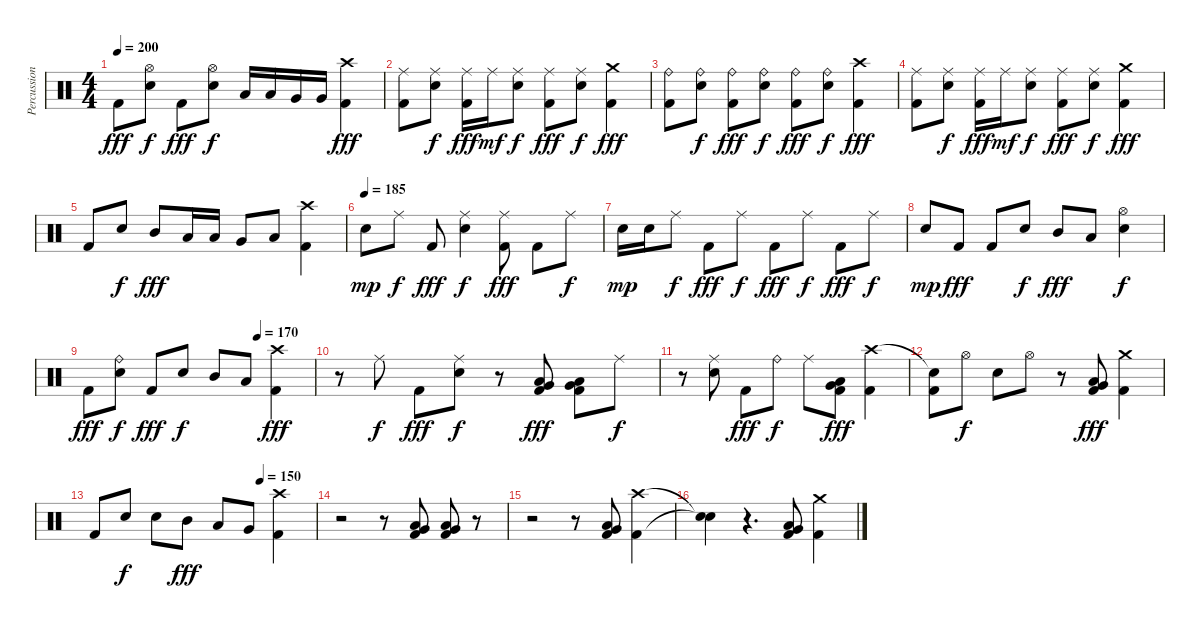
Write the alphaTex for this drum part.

\track ("Percussion" "Percussion") {instrument percussion}
\staff {score}
\articulation defaults
\ts (4 4)
\tempo 200
\clef neutral
\ks c "Kick (hit) 2".8{dy fff}
("Hi-Hat (open)" "Snare (hit) 2").8{dy f} "Kick (hit) 2".8{dy fff} ("Hi-Hat (open)" "Snare (hit) 2").8{dy f} "Low Tom (hit)".16 "Low Tom (hit)".16 "Very Low Tom (hit)".16 "Very Low Tom (hit)".16 ("Crash high (hit)" "Kick (hit) 2").4{dy fff} |
("Ride (middle)" "Kick (hit) 2").8 ("Ride (middle)" "Snare (hit) 2").8{dy f} ("Ride (middle)" "Kick (hit) 2").16{dy fff} "Ride (middle)".16{dy mf} ("Ride (middle)" "Snare (hit) 2").8{dy f} ("Ride (middle)" "Kick (hit) 2").8{dy fff} ("Ride (middle)" "Snare (hit) 2").8{dy f} ("Crash medium (hit)" "Kick (hit) 2").4{dy fff} |
("Ride (bell)" "Kick (hit) 2").8 ("Ride (bell)" "Snare (hit) 2").8{dy f} ("Ride (bell)" "Kick (hit) 2").8{dy fff} ("Ride (bell)" "Snare (hit) 2").8{dy f} ("Ride (bell)" "Kick (hit) 2").8{dy fff} ("Ride (bell)" "Snare (hit) 2").8{dy f} ("Crash high (hit)" "Kick (hit) 2").4{dy fff} |
("Ride (middle)" "Kick (hit) 2").8 ("Ride (middle)" "Snare (hit) 2").8{dy f} ("Ride (middle)" "Kick (hit) 2").16{dy fff} "Ride (middle)".16{dy mf} ("Ride (middle)" "Snare (hit) 2").8{dy f} ("Ride (middle)" "Kick (hit) 2").8{dy fff} ("Ride (middle)" "Snare (hit) 2").8{dy f} ("Crash medium (hit)" "Kick (hit) 2").4{dy fff} |
"Kick (hit) 2".8 "Snare (hit) 2".8{dy f} "Mid Tom (hit)".8{dy fff} "Low Tom (hit)".16 "Low Tom (hit)".16 "Very Low Tom (hit)".8 "Low Floor Tom (hit)".8 ("Crash high (hit)" "Kick (hit) 2").4 |
\tempo (185)
"Electric Snare (hit)".8{dy mp} "Ride (middle)".8{dy f} "Kick (hit) 2".8{dy fff} ("Ride (middle)" "Electric Snare (hit)").4{dy f} ("Ride (middle)" "Kick (hit) 2").8{dy fff} "Kick (hit) 2".8 "Ride (middle)".8{dy f} |
"Electric Snare (hit)".16{dy mp} "Electric Snare (hit)".16 "Ride (middle)".8{dy f} "Kick (hit) 2".8{dy fff} "Ride (middle)".8{dy f} "Kick (hit) 2".8{dy fff} "Ride (middle)".8{dy f} "Kick (hit) 2".8{dy fff} "Ride (middle)".8{dy f} |
"Electric Snare (hit)".8{dy mp} "Kick (hit) 2".8{dy fff} "Kick (hit) 2".8 "Electric Snare (hit)".8{dy f} "Mid Tom (hit)".8{dy fff} "Low Tom (hit)".8 ("Hi-Hat (open)" "Electric Snare (hit)").4{dy f} |
\tempo (170 0.75)
"Kick (hit) 2".8{dy fff} ("Ride (bell)" "Electric Snare (hit)").8{dy f} "Kick (hit) 2".8{dy fff} "Electric Snare (hit)".8{dy f} "Mid Tom (hit)".8 "Low Tom (hit)".8 ("Crash high (hit)" "Kick (hit) 2").4{dy fff} |
r.8 "Ride (middle)".8{dy f} "Kick (hit) 2".8{dy fff} ("Ride (middle)" "Electric Snare (hit)").8{dy f} r.8 ("Low Tom (hit)" "Very Low Tom (hit)" "Kick (hit) 2").8{dy fff} ("Low Tom (hit)" "Very Low Tom (hit)" "Kick (hit) 2").8 "Ride (middle)".8{dy f} |
r.8 ("Ride (middle)" "Electric Snare (hit)").8 "Kick (hit) 2".8{dy fff} "Ride (bell)".8{dy f} "Ride (middle)".8 ("Low Tom (hit)" "Very Low Tom (hit)" "Kick (hit) 2").8{dy fff} ("Crash high (hit)" "Kick (hit) 2").4 |
("Snare (hit)"{t} "Kick (hit) 2").8 "Hi-Hat (open)".8{dy f} "Electric Snare (hit)".8 "Hi-Hat (open)".8 r.8 ("Low Tom (hit)" "Very Low Tom (hit)" "Kick (hit) 2").8{dy fff} ("Crash medium (hit)" "Kick (hit) 2").4 |
\tempo (150 0.75)
"Kick (hit) 2".8 "Electric Snare (hit)".8{dy f} "Electric Snare (hit)".8 "Mid Tom (hit)".8{dy fff} "Low Tom (hit)".8 "Very Low Tom (hit)".8 ("Crash high (hit)" "Kick (hit) 2").4 |
r.2 r.8 ("Low Tom (hit)" "Very Low Tom (hit)" "Kick (hit) 2").8 ("Low Tom (hit)" "Very Low Tom (hit)" "Kick (hit) 2").8 r.8 |
r.2 r.8 ("Low Tom (hit)" "Very Low Tom (hit)" "Kick (hit) 2").8 ("Crash high (hit)" "Kick (hit) 2").4 |
("Snare (hit)"{t} "Snare (hit)"{t}).4 r.4{d} ("Low Tom (hit)" "Very Low Tom (hit)" "Kick (hit) 2").8 ("Crash medium (hit)" "Kick (hit) 2").4
